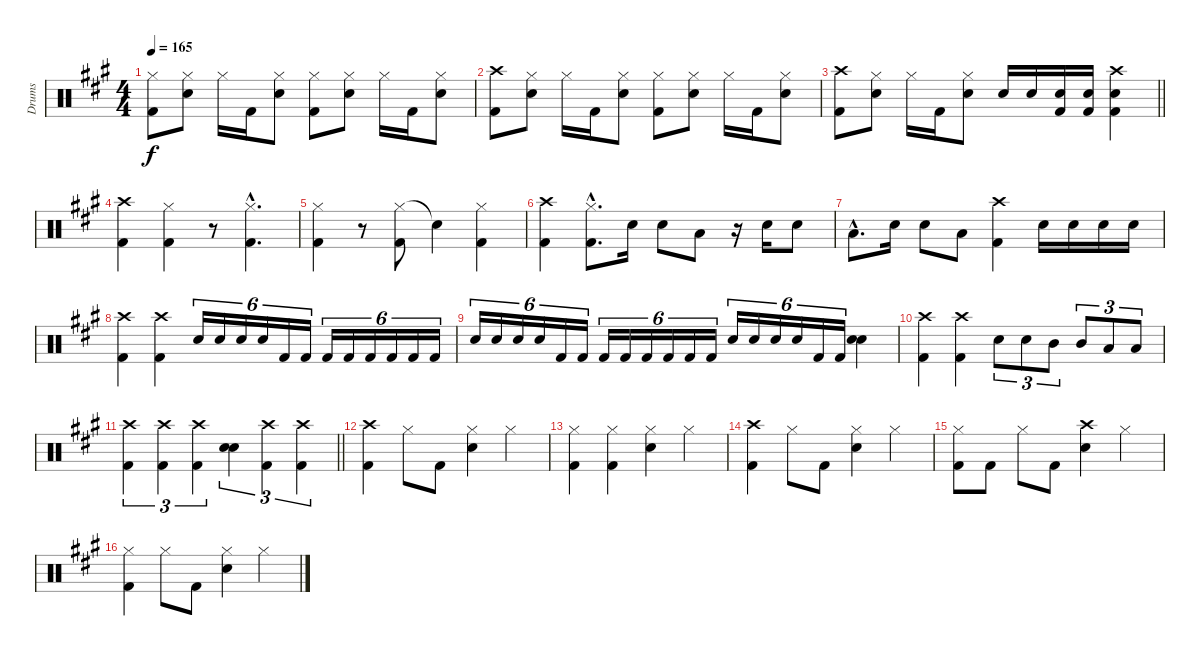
\track ("Drums" "Drums") {instrument percussion}
\staff {score}
\articulation defaults
\ts (4 4)
\tempo 165
\clef neutral
\ks a
("Hi-Hat (closed)" "Kick (hit) 2").8{dy f} ("Hi-Hat (closed)" "Snare (hit) 2").8 "Hi-Hat (closed)".16 "Kick (hit) 2".16 ("Hi-Hat (closed)" "Snare (hit) 2").8 ("Hi-Hat (closed)" "Kick (hit) 2").8 ("Hi-Hat (closed)" "Snare (hit) 2").8 "Hi-Hat (closed)".16 "Kick (hit) 2".16 ("Hi-Hat (closed)" "Snare (hit) 2").8 |
("Crash high (hit)" "Kick (hit) 2").8 ("Hi-Hat (closed)" "Snare (hit) 2").8 "Hi-Hat (closed)".16 "Kick (hit) 2".16 ("Hi-Hat (closed)" "Snare (hit) 2").8 ("Hi-Hat (closed)" "Kick (hit) 2").8 ("Hi-Hat (closed)" "Snare (hit) 2").8 "Hi-Hat (closed)".16 "Kick (hit) 2".16 ("Hi-Hat (closed)" "Snare (hit) 2").8 |
\barLineRight lightlight
("Crash high (hit)" "Kick (hit) 2").8 ("Hi-Hat (closed)" "Snare (hit) 2").8 "Hi-Hat (closed)".16 "Kick (hit) 2".16 ("Hi-Hat (closed)" "Snare (hit) 2").8 "Snare (hit) 2".16 "Snare (hit) 2".16 ("Snare (hit) 2" "Kick (hit) 2").16 ("Snare (hit) 2" "Kick (hit) 2").16 ("Crash high (hit)" "Snare (hit) 2" "Kick (hit) 2").4 |
("Crash high (hit)" "Kick (hit) 2").4 ("Hi-Hat (closed)" "Kick (hit) 2").4 r.8 ("Hi-Hat (closed)"{hac} "Kick (hit) 2"{hac}).4{d} |
("Hi-Hat (closed)" "Kick (hit) 2").4 r.8 ("Hi-Hat (closed)" "Kick (hit) 2").8 "Snare (hit)"{t}.4 ("Hi-Hat (closed)" "Kick (hit) 2").4 |
("Crash high (hit)" "Kick (hit) 2").4 ("Hi-Hat (closed)"{hac} "Kick (hit) 2"{hac}).8{d} "Snare (hit) 2".16 "Snare (hit) 2".8 "Low Tom (hit)".8 r.16 "Snare (hit) 2".16 "Snare (hit) 2".8 |
"Low Tom (hit)"{hac}.8{d} "Snare (hit) 2".16 "Snare (hit) 2".8 "Low Tom (hit)".8 ("Crash high (hit)" "Kick (hit) 2").4 "Snare (hit) 2".16 "Snare (hit) 2".16 "Snare (hit) 2".16 "Snare (hit) 2".16 |
("Crash high (hit)" "Kick (hit) 2").4 ("Crash high (hit)" "Kick (hit) 2").4 "Snare (hit) 2".16{tu (6 4)} "Snare (hit) 2".16{tu (6 4)} "Snare (hit) 2".16{tu (6 4)} "Snare (hit) 2".16{tu (6 4)} "Kick (hit) 2".16{tu (6 4)} "Kick (hit) 2".16{tu (6 4)} "Kick (hit) 2".16{tu (6 4)} "Kick (hit) 2".16{tu (6 4)} "Kick (hit) 2".16{tu (6 4)} "Kick (hit) 2".16{tu (6 4)} "Kick (hit) 2".16{tu (6 4)} "Kick (hit) 2".16{tu (6 4)} |
"Snare (hit) 2".16{tu (6 4)} "Snare (hit) 2".16{tu (6 4)} "Snare (hit) 2".16{tu (6 4)} "Snare (hit) 2".16{tu (6 4)} "Kick (hit) 2".16{tu (6 4)} "Kick (hit) 2".16{tu (6 4)} "Kick (hit) 2".16{tu (6 4)} "Kick (hit) 2".16{tu (6 4)} "Kick (hit) 2".16{tu (6 4)} "Kick (hit) 2".16{tu (6 4)} "Kick (hit) 2".16{tu (6 4)} "Kick (hit) 2".16{tu (6 4)} "Snare (hit) 2".16{tu (6 4)} "Snare (hit) 2".16{tu (6 4)} "Snare (hit) 2".16{tu (6 4)} "Snare (hit) 2".16{tu (6 4)} "Kick (hit) 2".16{tu (6 4)} "Kick (hit) 2".16{tu (6 4)} ("Snare (hit) 2" "Snare (hit) 2").4 |
("Crash high (hit)" "Kick (hit) 2").4 ("Crash high (hit)" "Kick (hit) 2").4 "Snare (hit) 2".8{tu (3 2)} "Snare (hit) 2".8{tu (3 2)} "Mid Tom (hit)".8{tu (3 2)} "Mid Tom (hit)".8{tu (3 2)} "Low Tom (hit)".8{tu (3 2)} "Low Floor Tom (hit)".8{tu (3 2)} |
\barLineRight lightlight
("Crash high (hit)" "Kick (hit) 2").4{tu (3 2)} ("Crash high (hit)" "Kick (hit) 2").4{tu (3 2)} ("Crash high (hit)" "Kick (hit) 2").4{tu (3 2)} ("Snare (hit) 2" "Snare (hit) 2").4{tu (3 2)} ("Crash high (hit)" "Kick (hit) 2").4{tu (3 2)} ("Crash high (hit)" "Kick (hit) 2").4{tu (3 2)} |
("Crash high (hit)" "Kick (hit) 2").4 "Hi-Hat (closed)".8 "Kick (hit) 2".8 ("Hi-Hat (closed)" "Snare (hit) 2").4 "Hi-Hat (closed)".4 |
("Hi-Hat (closed)" "Kick (hit) 2").4 ("Hi-Hat (closed)" "Kick (hit) 2").4 ("Hi-Hat (closed)" "Snare (hit) 2").4 "Hi-Hat (closed)".4 |
("Crash high (hit)" "Kick (hit) 2").4 "Hi-Hat (closed)".8 "Kick (hit) 2".8 ("Hi-Hat (closed)" "Snare (hit) 2").4 "Hi-Hat (closed)".4 |
("Hi-Hat (closed)" "Kick (hit) 2").8 "Kick (hit) 2".8 "Hi-Hat (closed)".8 "Kick (hit) 2".8 ("Crash high (hit)" "Snare (hit) 2").4 "Hi-Hat (closed)".4 |
("Hi-Hat (closed)" "Kick (hit) 2").4 "Hi-Hat (closed)".8 "Kick (hit) 2".8 ("Hi-Hat (closed)" "Snare (hit) 2").4 "Hi-Hat (closed)".4
